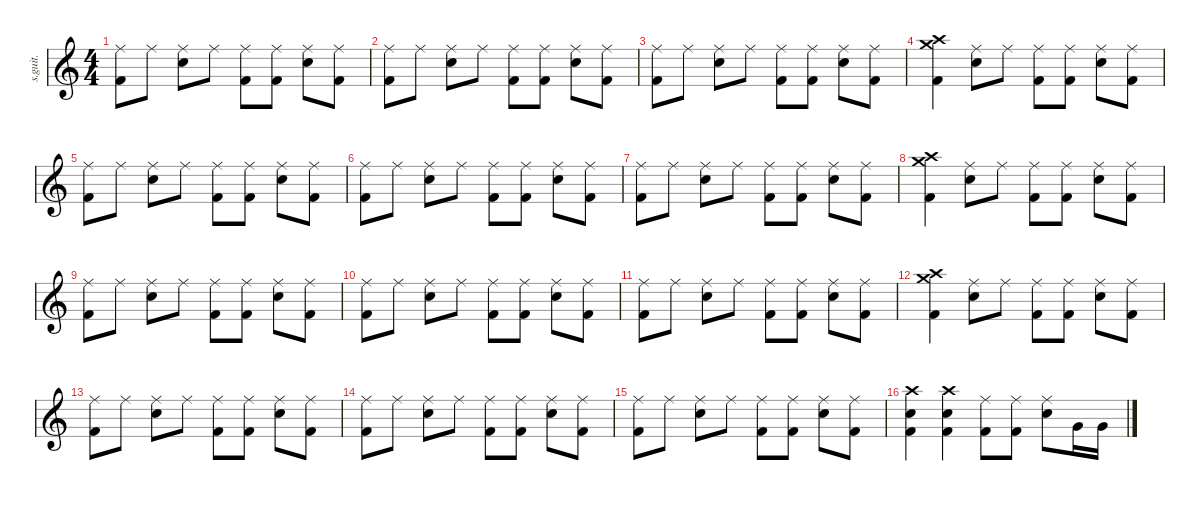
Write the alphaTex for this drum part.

\defaultSystemsLayout 4
\hideDynamics
\bracketExtendMode nobrackets
\track ("Bob Burns (Drums)" "s.guit.") {instrument percussion}
\staff {score}
\articulation defaults
\ts (4 4)
\tempo (150 hide)
\clef g2
\ks c
("Ride (middle)" "Kick (hit) 2").8{lyrics (0 "") lyrics (1 "") lyrics (2 "") lyrics (3 "") lyrics (4 "") dy f} "Ride (middle)".8{lyrics (0 "") lyrics (1 "") lyrics (2 "") lyrics (3 "") lyrics (4 "")} ("Ride (middle)" "Electric Snare (hit)").8{lyrics (0 "") lyrics (1 "") lyrics (2 "") lyrics (3 "") lyrics (4 "")} "Ride (middle)".8{lyrics (0 "") lyrics (1 "") lyrics (2 "") lyrics (3 "") lyrics (4 "")} ("Ride (middle)" "Kick (hit) 2").8{lyrics (0 "") lyrics (1 "") lyrics (2 "") lyrics (3 "") lyrics (4 "")} ("Ride (middle)" "Kick (hit) 2").8{lyrics (0 "") lyrics (1 "") lyrics (2 "") lyrics (3 "") lyrics (4 "")} ("Ride (middle)" "Electric Snare (hit)").8{lyrics (0 "") lyrics (1 "") lyrics (2 "") lyrics (3 "") lyrics (4 "")} ("Ride (middle)" "Kick (hit) 2").8{lyrics (0 "") lyrics (1 "") lyrics (2 "") lyrics (3 "") lyrics (4 "")} |
("Ride (middle)" "Kick (hit) 2").8{lyrics (0 "") lyrics (1 "") lyrics (2 "") lyrics (3 "") lyrics (4 "")} "Ride (middle)".8{lyrics (0 "") lyrics (1 "") lyrics (2 "") lyrics (3 "") lyrics (4 "")} ("Ride (middle)" "Electric Snare (hit)").8{lyrics (0 "") lyrics (1 "") lyrics (2 "") lyrics (3 "") lyrics (4 "")} "Ride (middle)".8{lyrics (0 "") lyrics (1 "") lyrics (2 "") lyrics (3 "") lyrics (4 "")} ("Ride (middle)" "Kick (hit) 2").8{lyrics (0 "") lyrics (1 "") lyrics (2 "") lyrics (3 "") lyrics (4 "")} ("Ride (middle)" "Kick (hit) 2").8{lyrics (0 "") lyrics (1 "") lyrics (2 "") lyrics (3 "") lyrics (4 "")} ("Ride (middle)" "Electric Snare (hit)").8{lyrics (0 "") lyrics (1 "") lyrics (2 "") lyrics (3 "") lyrics (4 "")} ("Ride (middle)" "Kick (hit) 2").8{lyrics (0 "") lyrics (1 "") lyrics (2 "") lyrics (3 "") lyrics (4 "")} |
("Ride (middle)" "Kick (hit) 2").8{lyrics (0 "") lyrics (1 "") lyrics (2 "") lyrics (3 "") lyrics (4 "")} "Ride (middle)".8{lyrics (0 "") lyrics (1 "") lyrics (2 "") lyrics (3 "") lyrics (4 "")} ("Ride (middle)" "Electric Snare (hit)").8{lyrics (0 "") lyrics (1 "") lyrics (2 "") lyrics (3 "") lyrics (4 "")} "Ride (middle)".8{lyrics (0 "") lyrics (1 "") lyrics (2 "") lyrics (3 "") lyrics (4 "")} ("Ride (middle)" "Kick (hit) 2").8{lyrics (0 "") lyrics (1 "") lyrics (2 "") lyrics (3 "") lyrics (4 "")} ("Ride (middle)" "Kick (hit) 2").8{lyrics (0 "") lyrics (1 "") lyrics (2 "") lyrics (3 "") lyrics (4 "")} ("Ride (middle)" "Electric Snare (hit)").8{lyrics (0 "") lyrics (1 "") lyrics (2 "") lyrics (3 "") lyrics (4 "")} ("Ride (middle)" "Kick (hit) 2").8{lyrics (0 "") lyrics (1 "") lyrics (2 "") lyrics (3 "") lyrics (4 "")} |
("Crash high (hit)" "Crash medium (hit)" "Kick (hit) 2").4{lyrics (0 "") lyrics (1 "") lyrics (2 "") lyrics (3 "") lyrics (4 "")} ("Ride (middle)" "Electric Snare (hit)").8{lyrics (0 "") lyrics (1 "") lyrics (2 "") lyrics (3 "") lyrics (4 "")} "Ride (middle)".8{lyrics (0 "") lyrics (1 "") lyrics (2 "") lyrics (3 "") lyrics (4 "")} ("Ride (middle)" "Kick (hit) 2").8{lyrics (0 "") lyrics (1 "") lyrics (2 "") lyrics (3 "") lyrics (4 "")} ("Ride (middle)" "Kick (hit) 2").8{lyrics (0 "") lyrics (1 "") lyrics (2 "") lyrics (3 "") lyrics (4 "")} ("Ride (middle)" "Electric Snare (hit)").8{lyrics (0 "") lyrics (1 "") lyrics (2 "") lyrics (3 "") lyrics (4 "")} ("Ride (middle)" "Kick (hit) 2").8{lyrics (0 "") lyrics (1 "") lyrics (2 "") lyrics (3 "") lyrics (4 "")} |
("Ride (middle)" "Kick (hit) 2").8{lyrics (0 "") lyrics (1 "") lyrics (2 "") lyrics (3 "") lyrics (4 "")} "Ride (middle)".8{lyrics (0 "") lyrics (1 "") lyrics (2 "") lyrics (3 "") lyrics (4 "")} ("Ride (middle)" "Electric Snare (hit)").8{lyrics (0 "") lyrics (1 "") lyrics (2 "") lyrics (3 "") lyrics (4 "")} "Ride (middle)".8{lyrics (0 "") lyrics (1 "") lyrics (2 "") lyrics (3 "") lyrics (4 "")} ("Ride (middle)" "Kick (hit) 2").8{lyrics (0 "") lyrics (1 "") lyrics (2 "") lyrics (3 "") lyrics (4 "")} ("Ride (middle)" "Kick (hit) 2").8{lyrics (0 "") lyrics (1 "") lyrics (2 "") lyrics (3 "") lyrics (4 "")} ("Ride (middle)" "Electric Snare (hit)").8{lyrics (0 "") lyrics (1 "") lyrics (2 "") lyrics (3 "") lyrics (4 "")} ("Ride (middle)" "Kick (hit) 2").8{lyrics (0 "") lyrics (1 "") lyrics (2 "") lyrics (3 "") lyrics (4 "")} |
("Ride (middle)" "Kick (hit) 2").8{lyrics (0 "") lyrics (1 "") lyrics (2 "") lyrics (3 "") lyrics (4 "")} "Ride (middle)".8{lyrics (0 "") lyrics (1 "") lyrics (2 "") lyrics (3 "") lyrics (4 "")} ("Ride (middle)" "Electric Snare (hit)").8{lyrics (0 "") lyrics (1 "") lyrics (2 "") lyrics (3 "") lyrics (4 "")} "Ride (middle)".8{lyrics (0 "") lyrics (1 "") lyrics (2 "") lyrics (3 "") lyrics (4 "")} ("Ride (middle)" "Kick (hit) 2").8{lyrics (0 "") lyrics (1 "") lyrics (2 "") lyrics (3 "") lyrics (4 "")} ("Ride (middle)" "Kick (hit) 2").8{lyrics (0 "") lyrics (1 "") lyrics (2 "") lyrics (3 "") lyrics (4 "")} ("Ride (middle)" "Electric Snare (hit)").8{lyrics (0 "") lyrics (1 "") lyrics (2 "") lyrics (3 "") lyrics (4 "")} ("Ride (middle)" "Kick (hit) 2").8{lyrics (0 "") lyrics (1 "") lyrics (2 "") lyrics (3 "") lyrics (4 "")} |
("Ride (middle)" "Kick (hit) 2").8{lyrics (0 "") lyrics (1 "") lyrics (2 "") lyrics (3 "") lyrics (4 "")} "Ride (middle)".8{lyrics (0 "") lyrics (1 "") lyrics (2 "") lyrics (3 "") lyrics (4 "")} ("Ride (middle)" "Electric Snare (hit)").8{lyrics (0 "") lyrics (1 "") lyrics (2 "") lyrics (3 "") lyrics (4 "")} "Ride (middle)".8{lyrics (0 "") lyrics (1 "") lyrics (2 "") lyrics (3 "") lyrics (4 "")} ("Ride (middle)" "Kick (hit) 2").8{lyrics (0 "") lyrics (1 "") lyrics (2 "") lyrics (3 "") lyrics (4 "")} ("Ride (middle)" "Kick (hit) 2").8{lyrics (0 "") lyrics (1 "") lyrics (2 "") lyrics (3 "") lyrics (4 "")} ("Ride (middle)" "Electric Snare (hit)").8{lyrics (0 "") lyrics (1 "") lyrics (2 "") lyrics (3 "") lyrics (4 "")} ("Ride (middle)" "Kick (hit) 2").8{lyrics (0 "") lyrics (1 "") lyrics (2 "") lyrics (3 "") lyrics (4 "")} |
("Crash high (hit)" "Crash medium (hit)" "Kick (hit) 2").4{lyrics (0 "") lyrics (1 "") lyrics (2 "") lyrics (3 "") lyrics (4 "")} ("Ride (middle)" "Electric Snare (hit)").8{lyrics (0 "") lyrics (1 "") lyrics (2 "") lyrics (3 "") lyrics (4 "")} "Ride (middle)".8{lyrics (0 "") lyrics (1 "") lyrics (2 "") lyrics (3 "") lyrics (4 "")} ("Ride (middle)" "Kick (hit) 2").8{lyrics (0 "") lyrics (1 "") lyrics (2 "") lyrics (3 "") lyrics (4 "")} ("Ride (middle)" "Kick (hit) 2").8{lyrics (0 "") lyrics (1 "") lyrics (2 "") lyrics (3 "") lyrics (4 "")} ("Ride (middle)" "Electric Snare (hit)").8{lyrics (0 "") lyrics (1 "") lyrics (2 "") lyrics (3 "") lyrics (4 "")} ("Ride (middle)" "Kick (hit) 2").8{lyrics (0 "") lyrics (1 "") lyrics (2 "") lyrics (3 "") lyrics (4 "")} |
("Ride (middle)" "Kick (hit) 2").8{lyrics (0 "") lyrics (1 "") lyrics (2 "") lyrics (3 "") lyrics (4 "")} "Ride (middle)".8{lyrics (0 "") lyrics (1 "") lyrics (2 "") lyrics (3 "") lyrics (4 "")} ("Ride (middle)" "Electric Snare (hit)").8{lyrics (0 "") lyrics (1 "") lyrics (2 "") lyrics (3 "") lyrics (4 "")} "Ride (middle)".8{lyrics (0 "") lyrics (1 "") lyrics (2 "") lyrics (3 "") lyrics (4 "")} ("Ride (middle)" "Kick (hit) 2").8{lyrics (0 "") lyrics (1 "") lyrics (2 "") lyrics (3 "") lyrics (4 "")} ("Ride (middle)" "Kick (hit) 2").8{lyrics (0 "") lyrics (1 "") lyrics (2 "") lyrics (3 "") lyrics (4 "")} ("Ride (middle)" "Electric Snare (hit)").8{lyrics (0 "") lyrics (1 "") lyrics (2 "") lyrics (3 "") lyrics (4 "")} ("Ride (middle)" "Kick (hit) 2").8{lyrics (0 "") lyrics (1 "") lyrics (2 "") lyrics (3 "") lyrics (4 "")} |
("Ride (middle)" "Kick (hit) 2").8{lyrics (0 "") lyrics (1 "") lyrics (2 "") lyrics (3 "") lyrics (4 "")} "Ride (middle)".8{lyrics (0 "") lyrics (1 "") lyrics (2 "") lyrics (3 "") lyrics (4 "")} ("Ride (middle)" "Electric Snare (hit)").8{lyrics (0 "") lyrics (1 "") lyrics (2 "") lyrics (3 "") lyrics (4 "")} "Ride (middle)".8{lyrics (0 "") lyrics (1 "") lyrics (2 "") lyrics (3 "") lyrics (4 "")} ("Ride (middle)" "Kick (hit) 2").8{lyrics (0 "") lyrics (1 "") lyrics (2 "") lyrics (3 "") lyrics (4 "")} ("Ride (middle)" "Kick (hit) 2").8{lyrics (0 "") lyrics (1 "") lyrics (2 "") lyrics (3 "") lyrics (4 "")} ("Ride (middle)" "Electric Snare (hit)").8{lyrics (0 "") lyrics (1 "") lyrics (2 "") lyrics (3 "") lyrics (4 "")} ("Ride (middle)" "Kick (hit) 2").8{lyrics (0 "") lyrics (1 "") lyrics (2 "") lyrics (3 "") lyrics (4 "")} |
("Ride (middle)" "Kick (hit) 2").8{lyrics (0 "") lyrics (1 "") lyrics (2 "") lyrics (3 "") lyrics (4 "")} "Ride (middle)".8{lyrics (0 "") lyrics (1 "") lyrics (2 "") lyrics (3 "") lyrics (4 "")} ("Ride (middle)" "Electric Snare (hit)").8{lyrics (0 "") lyrics (1 "") lyrics (2 "") lyrics (3 "") lyrics (4 "")} "Ride (middle)".8{lyrics (0 "") lyrics (1 "") lyrics (2 "") lyrics (3 "") lyrics (4 "")} ("Ride (middle)" "Kick (hit) 2").8{lyrics (0 "") lyrics (1 "") lyrics (2 "") lyrics (3 "") lyrics (4 "")} ("Ride (middle)" "Kick (hit) 2").8{lyrics (0 "") lyrics (1 "") lyrics (2 "") lyrics (3 "") lyrics (4 "")} ("Ride (middle)" "Electric Snare (hit)").8{lyrics (0 "") lyrics (1 "") lyrics (2 "") lyrics (3 "") lyrics (4 "")} ("Ride (middle)" "Kick (hit) 2").8{lyrics (0 "") lyrics (1 "") lyrics (2 "") lyrics (3 "") lyrics (4 "")} |
("Crash high (hit)" "Crash medium (hit)" "Kick (hit) 2").4{lyrics (0 "") lyrics (1 "") lyrics (2 "") lyrics (3 "") lyrics (4 "")} ("Ride (middle)" "Electric Snare (hit)").8{lyrics (0 "") lyrics (1 "") lyrics (2 "") lyrics (3 "") lyrics (4 "")} "Ride (middle)".8{lyrics (0 "") lyrics (1 "") lyrics (2 "") lyrics (3 "") lyrics (4 "")} ("Ride (middle)" "Kick (hit) 2").8{lyrics (0 "") lyrics (1 "") lyrics (2 "") lyrics (3 "") lyrics (4 "")} ("Ride (middle)" "Kick (hit) 2").8{lyrics (0 "") lyrics (1 "") lyrics (2 "") lyrics (3 "") lyrics (4 "")} ("Ride (middle)" "Electric Snare (hit)").8{lyrics (0 "") lyrics (1 "") lyrics (2 "") lyrics (3 "") lyrics (4 "")} ("Ride (middle)" "Kick (hit) 2").8{lyrics (0 "") lyrics (1 "") lyrics (2 "") lyrics (3 "") lyrics (4 "")} |
("Ride (middle)" "Kick (hit) 2").8{lyrics (0 "") lyrics (1 "") lyrics (2 "") lyrics (3 "") lyrics (4 "")} "Ride (middle)".8{lyrics (0 "") lyrics (1 "") lyrics (2 "") lyrics (3 "") lyrics (4 "")} ("Ride (middle)" "Electric Snare (hit)").8{lyrics (0 "") lyrics (1 "") lyrics (2 "") lyrics (3 "") lyrics (4 "")} "Ride (middle)".8{lyrics (0 "") lyrics (1 "") lyrics (2 "") lyrics (3 "") lyrics (4 "")} ("Ride (middle)" "Kick (hit) 2").8{lyrics (0 "") lyrics (1 "") lyrics (2 "") lyrics (3 "") lyrics (4 "")} ("Ride (middle)" "Kick (hit) 2").8{lyrics (0 "") lyrics (1 "") lyrics (2 "") lyrics (3 "") lyrics (4 "")} ("Ride (middle)" "Electric Snare (hit)").8{lyrics (0 "") lyrics (1 "") lyrics (2 "") lyrics (3 "") lyrics (4 "")} ("Ride (middle)" "Kick (hit) 2").8{lyrics (0 "") lyrics (1 "") lyrics (2 "") lyrics (3 "") lyrics (4 "")} |
("Ride (middle)" "Kick (hit) 2").8{lyrics (0 "") lyrics (1 "") lyrics (2 "") lyrics (3 "") lyrics (4 "")} "Ride (middle)".8{lyrics (0 "") lyrics (1 "") lyrics (2 "") lyrics (3 "") lyrics (4 "")} ("Ride (middle)" "Electric Snare (hit)").8{lyrics (0 "") lyrics (1 "") lyrics (2 "") lyrics (3 "") lyrics (4 "")} "Ride (middle)".8{lyrics (0 "") lyrics (1 "") lyrics (2 "") lyrics (3 "") lyrics (4 "")} ("Ride (middle)" "Kick (hit) 2").8{lyrics (0 "") lyrics (1 "") lyrics (2 "") lyrics (3 "") lyrics (4 "")} ("Ride (middle)" "Kick (hit) 2").8{lyrics (0 "") lyrics (1 "") lyrics (2 "") lyrics (3 "") lyrics (4 "")} ("Ride (middle)" "Electric Snare (hit)").8{lyrics (0 "") lyrics (1 "") lyrics (2 "") lyrics (3 "") lyrics (4 "")} ("Ride (middle)" "Kick (hit) 2").8{lyrics (0 "") lyrics (1 "") lyrics (2 "") lyrics (3 "") lyrics (4 "")} |
("Ride (middle)" "Kick (hit) 2").8{lyrics (0 "") lyrics (1 "") lyrics (2 "") lyrics (3 "") lyrics (4 "")} "Ride (middle)".8{lyrics (0 "") lyrics (1 "") lyrics (2 "") lyrics (3 "") lyrics (4 "")} ("Ride (middle)" "Electric Snare (hit)").8{lyrics (0 "") lyrics (1 "") lyrics (2 "") lyrics (3 "") lyrics (4 "")} "Ride (middle)".8{lyrics (0 "") lyrics (1 "") lyrics (2 "") lyrics (3 "") lyrics (4 "")} ("Ride (middle)" "Kick (hit) 2").8{lyrics (0 "") lyrics (1 "") lyrics (2 "") lyrics (3 "") lyrics (4 "")} ("Ride (middle)" "Kick (hit) 2").8{lyrics (0 "") lyrics (1 "") lyrics (2 "") lyrics (3 "") lyrics (4 "")} ("Ride (middle)" "Electric Snare (hit)").8{lyrics (0 "") lyrics (1 "") lyrics (2 "") lyrics (3 "") lyrics (4 "")} ("Ride (middle)" "Kick (hit) 2").8{lyrics (0 "") lyrics (1 "") lyrics (2 "") lyrics (3 "") lyrics (4 "")} |
("Crash high (hit)" "Electric Snare (hit)" "Kick (hit) 2").4{lyrics (0 "") lyrics (1 "") lyrics (2 "") lyrics (3 "") lyrics (4 "")} ("Crash high (hit)" "Electric Snare (hit)" "Kick (hit) 2").4{lyrics (0 "") lyrics (1 "") lyrics (2 "") lyrics (3 "") lyrics (4 "")} ("Ride (middle)" "Kick (hit) 2").8{lyrics (0 "") lyrics (1 "") lyrics (2 "") lyrics (3 "") lyrics (4 "")} ("Ride (middle)" "Kick (hit) 2").8{lyrics (0 "") lyrics (1 "") lyrics (2 "") lyrics (3 "") lyrics (4 "")} ("Ride (middle)" "Electric Snare (hit)").8{lyrics (0 "") lyrics (1 "") lyrics (2 "") lyrics (3 "") lyrics (4 "")} "Very Low Tom (hit)".16{lyrics (0 "") lyrics (1 "") lyrics (2 "") lyrics (3 "") lyrics (4 "")} "Very Low Tom (hit)".16{lyrics (0 "") lyrics (1 "") lyrics (2 "") lyrics (3 "") lyrics (4 "")}
